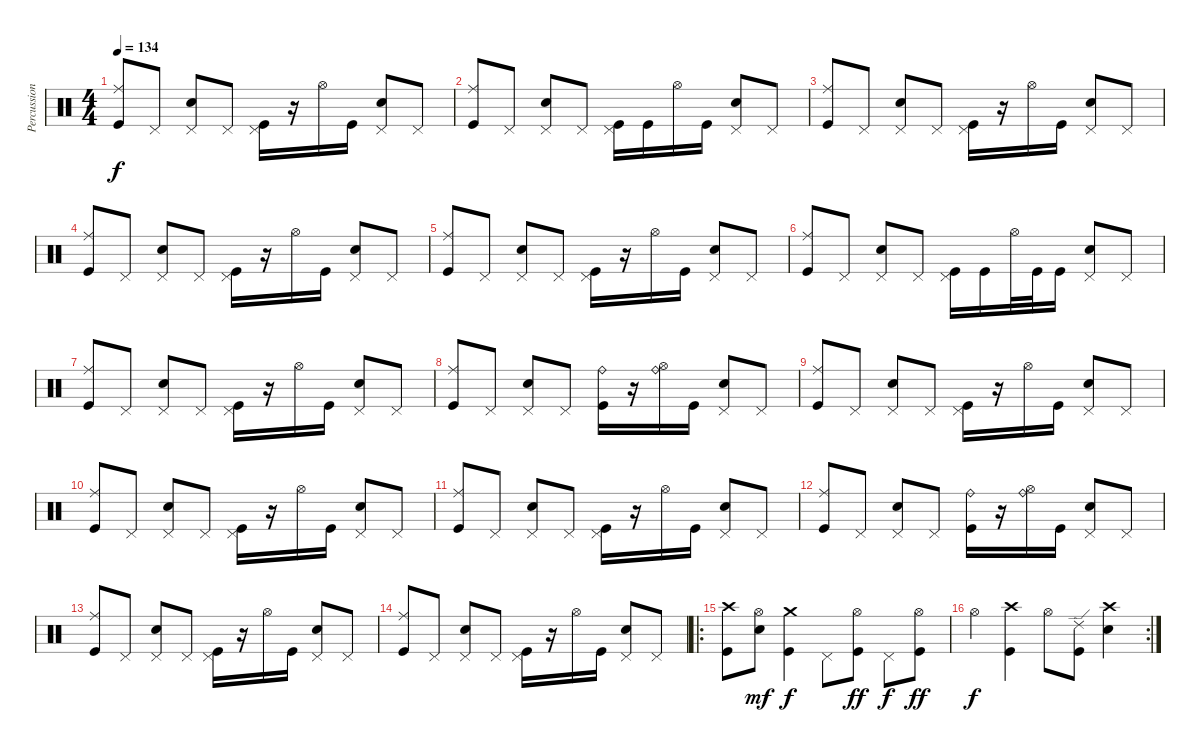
\track ("Percussion" "Percussion") {instrument percussion}
\staff {score}
\articulation defaults
\ts (4 4)
\tempo 134
\clef neutral
\ks c
("Ride (middle)" "Kick (hit)").8{dy f} "Pedal Hi-Hat (hit)".8 ("Pedal Hi-Hat (hit)" "Electric Snare (hit)").8 "Pedal Hi-Hat (hit)".8 ("Pedal Hi-Hat (hit)" "Kick (hit)").16 r.16 "Hi-Hat (open)".16 "Kick (hit)".16 ("Pedal Hi-Hat (hit)" "Electric Snare (hit)").8 "Pedal Hi-Hat (hit)".8 |
("Ride (middle)" "Kick (hit)").8 "Pedal Hi-Hat (hit)".8 ("Pedal Hi-Hat (hit)" "Electric Snare (hit)").8 "Pedal Hi-Hat (hit)".8 ("Pedal Hi-Hat (hit)" "Kick (hit)").16 "Kick (hit)".16 "Hi-Hat (open)".16 "Kick (hit)".16 ("Pedal Hi-Hat (hit)" "Electric Snare (hit)").8 "Pedal Hi-Hat (hit)".8 |
("Ride (middle)" "Kick (hit)").8 "Pedal Hi-Hat (hit)".8 ("Pedal Hi-Hat (hit)" "Electric Snare (hit)").8 "Pedal Hi-Hat (hit)".8 ("Pedal Hi-Hat (hit)" "Kick (hit)").16 r.16 "Hi-Hat (open)".16 "Kick (hit)".16 ("Pedal Hi-Hat (hit)" "Electric Snare (hit)").8 "Pedal Hi-Hat (hit)".8 |
("Ride (middle)" "Kick (hit)").8 "Pedal Hi-Hat (hit)".8 ("Pedal Hi-Hat (hit)" "Electric Snare (hit)").8 "Pedal Hi-Hat (hit)".8 ("Pedal Hi-Hat (hit)" "Kick (hit)").16 r.16 "Hi-Hat (open)".16 "Kick (hit)".16 ("Pedal Hi-Hat (hit)" "Electric Snare (hit)").8 "Pedal Hi-Hat (hit)".8 |
("Ride (middle)" "Kick (hit)").8 "Pedal Hi-Hat (hit)".8 ("Pedal Hi-Hat (hit)" "Electric Snare (hit)").8 "Pedal Hi-Hat (hit)".8 ("Pedal Hi-Hat (hit)" "Kick (hit)").16 r.16 "Hi-Hat (open)".16 "Kick (hit)".16 ("Pedal Hi-Hat (hit)" "Electric Snare (hit)").8 "Pedal Hi-Hat (hit)".8 |
("Ride (middle)" "Kick (hit)").8 "Pedal Hi-Hat (hit)".8 ("Pedal Hi-Hat (hit)" "Electric Snare (hit)").8 "Pedal Hi-Hat (hit)".8 ("Pedal Hi-Hat (hit)" "Kick (hit)").16 "Kick (hit)".16 "Hi-Hat (open)".32 "Kick (hit)".32 "Kick (hit)".16 ("Pedal Hi-Hat (hit)" "Electric Snare (hit)").8 "Pedal Hi-Hat (hit)".8 |
("Ride (middle)" "Kick (hit)").8 "Pedal Hi-Hat (hit)".8 ("Pedal Hi-Hat (hit)" "Electric Snare (hit)").8 "Pedal Hi-Hat (hit)".8 ("Pedal Hi-Hat (hit)" "Kick (hit)").16 r.16 "Hi-Hat (open)".16 "Kick (hit)".16 ("Pedal Hi-Hat (hit)" "Electric Snare (hit)").8 "Pedal Hi-Hat (hit)".8 |
("Ride (middle)" "Kick (hit)").8 "Pedal Hi-Hat (hit)".8 ("Pedal Hi-Hat (hit)" "Electric Snare (hit)").8 "Pedal Hi-Hat (hit)".8 ("Kick (hit)" "Ride (bell)").16 r.16 ("Hi-Hat (open)" "Ride (bell)").16 "Kick (hit)".16 ("Pedal Hi-Hat (hit)" "Electric Snare (hit)").8 "Pedal Hi-Hat (hit)".8 |
("Ride (middle)" "Kick (hit)").8 "Pedal Hi-Hat (hit)".8 ("Pedal Hi-Hat (hit)" "Electric Snare (hit)").8 "Pedal Hi-Hat (hit)".8 ("Pedal Hi-Hat (hit)" "Kick (hit)").16 r.16 "Hi-Hat (open)".16 "Kick (hit)".16 ("Pedal Hi-Hat (hit)" "Electric Snare (hit)").8 "Pedal Hi-Hat (hit)".8 |
("Ride (middle)" "Kick (hit)").8 "Pedal Hi-Hat (hit)".8 ("Pedal Hi-Hat (hit)" "Electric Snare (hit)").8 "Pedal Hi-Hat (hit)".8 ("Pedal Hi-Hat (hit)" "Kick (hit)").16 r.16 "Hi-Hat (open)".16 "Kick (hit)".16 ("Pedal Hi-Hat (hit)" "Electric Snare (hit)").8 "Pedal Hi-Hat (hit)".8 |
("Ride (middle)" "Kick (hit)").8 "Pedal Hi-Hat (hit)".8 ("Pedal Hi-Hat (hit)" "Electric Snare (hit)").8 "Pedal Hi-Hat (hit)".8 ("Pedal Hi-Hat (hit)" "Kick (hit)").16 r.16 "Hi-Hat (open)".16 "Kick (hit)".16 ("Pedal Hi-Hat (hit)" "Electric Snare (hit)").8 "Pedal Hi-Hat (hit)".8 |
("Ride (middle)" "Kick (hit)").8 "Pedal Hi-Hat (hit)".8 ("Pedal Hi-Hat (hit)" "Electric Snare (hit)").8 "Pedal Hi-Hat (hit)".8 ("Kick (hit)" "Ride (bell)").16 r.16 ("Hi-Hat (open)" "Ride (bell)").16 "Kick (hit)".16 ("Pedal Hi-Hat (hit)" "Electric Snare (hit)").8 "Pedal Hi-Hat (hit)".8 |
("Ride (middle)" "Kick (hit)").8 "Pedal Hi-Hat (hit)".8 ("Pedal Hi-Hat (hit)" "Electric Snare (hit)").8 "Pedal Hi-Hat (hit)".8 ("Pedal Hi-Hat (hit)" "Kick (hit)").16 r.16 "Hi-Hat (open)".16 "Kick (hit)".16 ("Pedal Hi-Hat (hit)" "Electric Snare (hit)").8 "Pedal Hi-Hat (hit)".8 |
("Ride (middle)" "Kick (hit)").8 "Pedal Hi-Hat (hit)".8 ("Pedal Hi-Hat (hit)" "Electric Snare (hit)").8 "Pedal Hi-Hat (hit)".8 ("Pedal Hi-Hat (hit)" "Kick (hit)").16 r.16 "Hi-Hat (open)".16 "Kick (hit)".16 ("Pedal Hi-Hat (hit)" "Electric Snare (hit)").8 "Pedal Hi-Hat (hit)".8 |
\ro
("Crash high (hit)" "Kick (hit)").8 ("Hi-Hat (open)" "Electric Snare (hit)").8{dy mf} ("Crash medium (hit)" "Kick (hit)").4{dy f} "Pedal Hi-Hat (hit)".8 ("Hi-Hat (open)" "Kick (hit)").8{dy ff} "Pedal Hi-Hat (hit)".8{dy f} ("Hi-Hat (open)" "Kick (hit)").8{dy ff} |
\rc 2 "Hi-Hat (open)".4{dy f}
("Crash high (hit)" "Kick (hit)").4 "Hi-Hat (open)".8 ("Ride (edge) 2" "Kick (hit)").8 ("Crash high (hit)" "Electric Snare (hit)").4
